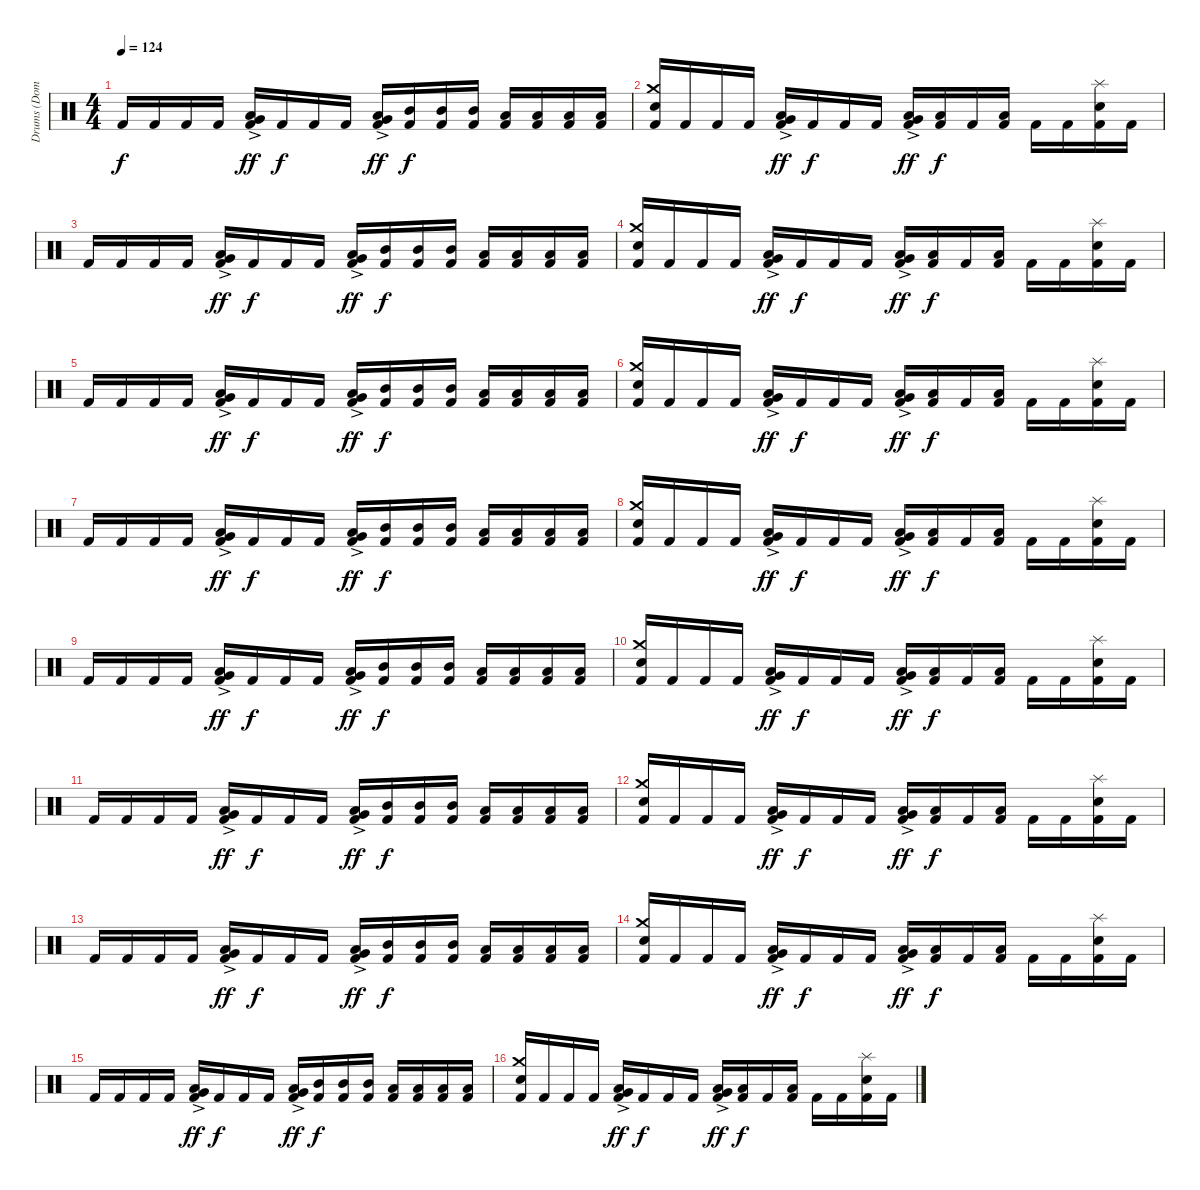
\track ("Drums (Dominik)" "Drums (Dom") {instrument percussion}
\staff {score}
\articulation defaults
\ts (4 4)
\tempo 124
\clef neutral
\ks c "Kick (hit) 2".16{dy f} "Kick (hit) 2".16 "Kick (hit) 2".16 "Kick (hit) 2".16
("Very Low Tom (hit)"{ac} "Low Floor Tom (hit)"{ac} "Kick (hit) 2").16{dy ff} "Kick (hit) 2".16{dy f} "Kick (hit) 2".16 "Kick (hit) 2".16 ("Very Low Tom (hit)"{ac} "Low Floor Tom (hit)"{ac} "Kick (hit) 2").16{dy ff} ("Mid Tom (hit)" "Kick (hit) 2").16{dy f} ("Mid Tom (hit)" "Kick (hit) 2").16 ("Mid Tom (hit)" "Kick (hit) 2").16 ("Low Tom (hit)" "Kick (hit) 2").16 ("Low Tom (hit)" "Kick (hit) 2").16 ("Low Tom (hit)" "Kick (hit) 2").16 ("Low Tom (hit)" "Kick (hit) 2").16 |
("Crash medium (hit)" "Electric Snare (hit)" "Kick (hit) 2").16 "Kick (hit) 2".16 "Kick (hit) 2".16 "Kick (hit) 2".16 ("Very Low Tom (hit)"{ac} "Low Floor Tom (hit)"{ac} "Kick (hit) 2").16{dy ff} "Kick (hit) 2".16{dy f} "Kick (hit) 2".16 "Kick (hit) 2".16 ("Very Low Tom (hit)"{ac} "Low Floor Tom (hit)"{ac} "Kick (hit) 2").16{dy ff} ("Low Tom (hit)" "Kick (hit) 2").16{dy f} "Kick (hit) 2".16 ("Low Floor Tom (hit)" "Kick (hit) 2").16 "Kick (hit) 2".16 "Kick (hit) 2".16 ("Splash (hit)" "Electric Snare (hit)" "Kick (hit) 2").16 "Kick (hit) 2".16 |
"Kick (hit) 2".16 "Kick (hit) 2".16 "Kick (hit) 2".16 "Kick (hit) 2".16 ("Very Low Tom (hit)"{ac} "Low Floor Tom (hit)"{ac} "Kick (hit) 2").16{dy ff} "Kick (hit) 2".16{dy f} "Kick (hit) 2".16 "Kick (hit) 2".16 ("Very Low Tom (hit)"{ac} "Low Floor Tom (hit)"{ac} "Kick (hit) 2").16{dy ff} ("Mid Tom (hit)" "Kick (hit) 2").16{dy f} ("Mid Tom (hit)" "Kick (hit) 2").16 ("Mid Tom (hit)" "Kick (hit) 2").16 ("Low Tom (hit)" "Kick (hit) 2").16 ("Low Tom (hit)" "Kick (hit) 2").16 ("Low Tom (hit)" "Kick (hit) 2").16 ("Low Tom (hit)" "Kick (hit) 2").16 |
("Crash medium (hit)" "Electric Snare (hit)" "Kick (hit) 2").16 "Kick (hit) 2".16 "Kick (hit) 2".16 "Kick (hit) 2".16 ("Very Low Tom (hit)"{ac} "Low Floor Tom (hit)"{ac} "Kick (hit) 2").16{dy ff} "Kick (hit) 2".16{dy f} "Kick (hit) 2".16 "Kick (hit) 2".16 ("Very Low Tom (hit)"{ac} "Low Floor Tom (hit)"{ac} "Kick (hit) 2").16{dy ff} ("Low Tom (hit)" "Kick (hit) 2").16{dy f} "Kick (hit) 2".16 ("Low Floor Tom (hit)" "Kick (hit) 2").16 "Kick (hit) 2".16 "Kick (hit) 2".16 ("Splash (hit)" "Electric Snare (hit)" "Kick (hit) 2").16 "Kick (hit) 2".16 |
"Kick (hit) 2".16 "Kick (hit) 2".16 "Kick (hit) 2".16 "Kick (hit) 2".16 ("Very Low Tom (hit)"{ac} "Low Floor Tom (hit)"{ac} "Kick (hit) 2").16{dy ff} "Kick (hit) 2".16{dy f} "Kick (hit) 2".16 "Kick (hit) 2".16 ("Very Low Tom (hit)"{ac} "Low Floor Tom (hit)"{ac} "Kick (hit) 2").16{dy ff} ("Mid Tom (hit)" "Kick (hit) 2").16{dy f} ("Mid Tom (hit)" "Kick (hit) 2").16 ("Mid Tom (hit)" "Kick (hit) 2").16 ("Low Tom (hit)" "Kick (hit) 2").16 ("Low Tom (hit)" "Kick (hit) 2").16 ("Low Tom (hit)" "Kick (hit) 2").16 ("Low Tom (hit)" "Kick (hit) 2").16 |
("Crash medium (hit)" "Electric Snare (hit)" "Kick (hit) 2").16 "Kick (hit) 2".16 "Kick (hit) 2".16 "Kick (hit) 2".16 ("Very Low Tom (hit)"{ac} "Low Floor Tom (hit)"{ac} "Kick (hit) 2").16{dy ff} "Kick (hit) 2".16{dy f} "Kick (hit) 2".16 "Kick (hit) 2".16 ("Very Low Tom (hit)"{ac} "Low Floor Tom (hit)"{ac} "Kick (hit) 2").16{dy ff} ("Low Tom (hit)" "Kick (hit) 2").16{dy f} "Kick (hit) 2".16 ("Low Floor Tom (hit)" "Kick (hit) 2").16 "Kick (hit) 2".16 "Kick (hit) 2".16 ("Splash (hit)" "Electric Snare (hit)" "Kick (hit) 2").16 "Kick (hit) 2".16 |
"Kick (hit) 2".16 "Kick (hit) 2".16 "Kick (hit) 2".16 "Kick (hit) 2".16 ("Very Low Tom (hit)"{ac} "Low Floor Tom (hit)"{ac} "Kick (hit) 2").16{dy ff} "Kick (hit) 2".16{dy f} "Kick (hit) 2".16 "Kick (hit) 2".16 ("Very Low Tom (hit)"{ac} "Low Floor Tom (hit)"{ac} "Kick (hit) 2").16{dy ff} ("Mid Tom (hit)" "Kick (hit) 2").16{dy f} ("Mid Tom (hit)" "Kick (hit) 2").16 ("Mid Tom (hit)" "Kick (hit) 2").16 ("Low Tom (hit)" "Kick (hit) 2").16 ("Low Tom (hit)" "Kick (hit) 2").16 ("Low Tom (hit)" "Kick (hit) 2").16 ("Low Tom (hit)" "Kick (hit) 2").16 |
("Crash medium (hit)" "Electric Snare (hit)" "Kick (hit) 2").16 "Kick (hit) 2".16 "Kick (hit) 2".16 "Kick (hit) 2".16 ("Very Low Tom (hit)"{ac} "Low Floor Tom (hit)"{ac} "Kick (hit) 2").16{dy ff} "Kick (hit) 2".16{dy f} "Kick (hit) 2".16 "Kick (hit) 2".16 ("Very Low Tom (hit)"{ac} "Low Floor Tom (hit)"{ac} "Kick (hit) 2").16{dy ff} ("Low Tom (hit)" "Kick (hit) 2").16{dy f} "Kick (hit) 2".16 ("Low Floor Tom (hit)" "Kick (hit) 2").16 "Kick (hit) 2".16 "Kick (hit) 2".16 ("Splash (hit)" "Electric Snare (hit)" "Kick (hit) 2").16 "Kick (hit) 2".16 |
"Kick (hit) 2".16 "Kick (hit) 2".16 "Kick (hit) 2".16 "Kick (hit) 2".16 ("Very Low Tom (hit)"{ac} "Low Floor Tom (hit)"{ac} "Kick (hit) 2").16{dy ff} "Kick (hit) 2".16{dy f} "Kick (hit) 2".16 "Kick (hit) 2".16 ("Very Low Tom (hit)"{ac} "Low Floor Tom (hit)"{ac} "Kick (hit) 2").16{dy ff} ("Mid Tom (hit)" "Kick (hit) 2").16{dy f} ("Mid Tom (hit)" "Kick (hit) 2").16 ("Mid Tom (hit)" "Kick (hit) 2").16 ("Low Tom (hit)" "Kick (hit) 2").16 ("Low Tom (hit)" "Kick (hit) 2").16 ("Low Tom (hit)" "Kick (hit) 2").16 ("Low Tom (hit)" "Kick (hit) 2").16 |
("Crash medium (hit)" "Electric Snare (hit)" "Kick (hit) 2").16 "Kick (hit) 2".16 "Kick (hit) 2".16 "Kick (hit) 2".16 ("Very Low Tom (hit)"{ac} "Low Floor Tom (hit)"{ac} "Kick (hit) 2").16{dy ff} "Kick (hit) 2".16{dy f} "Kick (hit) 2".16 "Kick (hit) 2".16 ("Very Low Tom (hit)"{ac} "Low Floor Tom (hit)"{ac} "Kick (hit) 2").16{dy ff} ("Low Tom (hit)" "Kick (hit) 2").16{dy f} "Kick (hit) 2".16 ("Low Floor Tom (hit)" "Kick (hit) 2").16 "Kick (hit) 2".16 "Kick (hit) 2".16 ("Splash (hit)" "Electric Snare (hit)" "Kick (hit) 2").16 "Kick (hit) 2".16 |
"Kick (hit) 2".16 "Kick (hit) 2".16 "Kick (hit) 2".16 "Kick (hit) 2".16 ("Very Low Tom (hit)"{ac} "Low Floor Tom (hit)"{ac} "Kick (hit) 2").16{dy ff} "Kick (hit) 2".16{dy f} "Kick (hit) 2".16 "Kick (hit) 2".16 ("Very Low Tom (hit)"{ac} "Low Floor Tom (hit)"{ac} "Kick (hit) 2").16{dy ff} ("Mid Tom (hit)" "Kick (hit) 2").16{dy f} ("Mid Tom (hit)" "Kick (hit) 2").16 ("Mid Tom (hit)" "Kick (hit) 2").16 ("Low Tom (hit)" "Kick (hit) 2").16 ("Low Tom (hit)" "Kick (hit) 2").16 ("Low Tom (hit)" "Kick (hit) 2").16 ("Low Tom (hit)" "Kick (hit) 2").16 |
("Crash medium (hit)" "Electric Snare (hit)" "Kick (hit) 2").16 "Kick (hit) 2".16 "Kick (hit) 2".16 "Kick (hit) 2".16 ("Very Low Tom (hit)"{ac} "Low Floor Tom (hit)"{ac} "Kick (hit) 2").16{dy ff} "Kick (hit) 2".16{dy f} "Kick (hit) 2".16 "Kick (hit) 2".16 ("Very Low Tom (hit)"{ac} "Low Floor Tom (hit)"{ac} "Kick (hit) 2").16{dy ff} ("Low Tom (hit)" "Kick (hit) 2").16{dy f} "Kick (hit) 2".16 ("Low Floor Tom (hit)" "Kick (hit) 2").16 "Kick (hit) 2".16 "Kick (hit) 2".16 ("Splash (hit)" "Electric Snare (hit)" "Kick (hit) 2").16 "Kick (hit) 2".16 |
"Kick (hit) 2".16 "Kick (hit) 2".16 "Kick (hit) 2".16 "Kick (hit) 2".16 ("Very Low Tom (hit)"{ac} "Low Floor Tom (hit)"{ac} "Kick (hit) 2").16{dy ff} "Kick (hit) 2".16{dy f} "Kick (hit) 2".16 "Kick (hit) 2".16 ("Very Low Tom (hit)"{ac} "Low Floor Tom (hit)"{ac} "Kick (hit) 2").16{dy ff} ("Mid Tom (hit)" "Kick (hit) 2").16{dy f} ("Mid Tom (hit)" "Kick (hit) 2").16 ("Mid Tom (hit)" "Kick (hit) 2").16 ("Low Tom (hit)" "Kick (hit) 2").16 ("Low Tom (hit)" "Kick (hit) 2").16 ("Low Tom (hit)" "Kick (hit) 2").16 ("Low Tom (hit)" "Kick (hit) 2").16 |
("Crash medium (hit)" "Electric Snare (hit)" "Kick (hit) 2").16 "Kick (hit) 2".16 "Kick (hit) 2".16 "Kick (hit) 2".16 ("Very Low Tom (hit)"{ac} "Low Floor Tom (hit)"{ac} "Kick (hit) 2").16{dy ff} "Kick (hit) 2".16{dy f} "Kick (hit) 2".16 "Kick (hit) 2".16 ("Very Low Tom (hit)"{ac} "Low Floor Tom (hit)"{ac} "Kick (hit) 2").16{dy ff} ("Low Tom (hit)" "Kick (hit) 2").16{dy f} "Kick (hit) 2".16 ("Low Floor Tom (hit)" "Kick (hit) 2").16 "Kick (hit) 2".16 "Kick (hit) 2".16 ("Splash (hit)" "Electric Snare (hit)" "Kick (hit) 2").16 "Kick (hit) 2".16 |
"Kick (hit) 2".16 "Kick (hit) 2".16 "Kick (hit) 2".16 "Kick (hit) 2".16 ("Very Low Tom (hit)"{ac} "Low Floor Tom (hit)"{ac} "Kick (hit) 2").16{dy ff} "Kick (hit) 2".16{dy f} "Kick (hit) 2".16 "Kick (hit) 2".16 ("Very Low Tom (hit)"{ac} "Low Floor Tom (hit)"{ac} "Kick (hit) 2").16{dy ff} ("Mid Tom (hit)" "Kick (hit) 2").16{dy f} ("Mid Tom (hit)" "Kick (hit) 2").16 ("Mid Tom (hit)" "Kick (hit) 2").16 ("Low Tom (hit)" "Kick (hit) 2").16 ("Low Tom (hit)" "Kick (hit) 2").16 ("Low Tom (hit)" "Kick (hit) 2").16 ("Low Tom (hit)" "Kick (hit) 2").16 |
("Crash medium (hit)" "Electric Snare (hit)" "Kick (hit) 2").16 "Kick (hit) 2".16 "Kick (hit) 2".16 "Kick (hit) 2".16 ("Very Low Tom (hit)"{ac} "Low Floor Tom (hit)"{ac} "Kick (hit) 2").16{dy ff} "Kick (hit) 2".16{dy f} "Kick (hit) 2".16 "Kick (hit) 2".16 ("Very Low Tom (hit)"{ac} "Low Floor Tom (hit)"{ac} "Kick (hit) 2").16{dy ff} ("Low Tom (hit)" "Kick (hit) 2").16{dy f} "Kick (hit) 2".16 ("Low Floor Tom (hit)" "Kick (hit) 2").16 "Kick (hit) 2".16 "Kick (hit) 2".16 ("Splash (hit)" "Electric Snare (hit)" "Kick (hit) 2").16 "Kick (hit) 2".16
